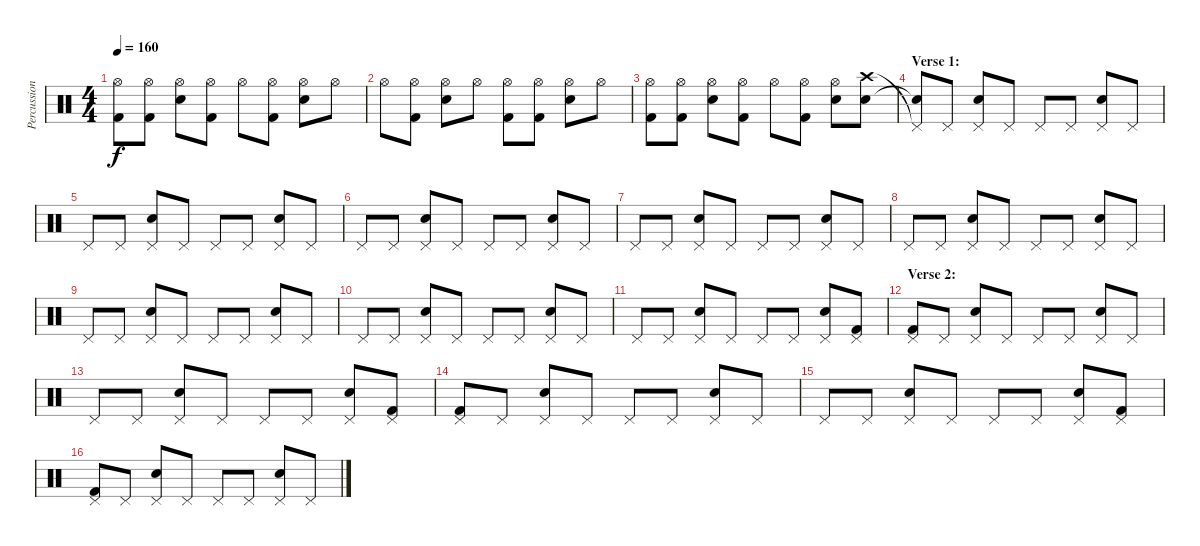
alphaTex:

\track ("Percussion" "Percussion") {instrument percussion}
\staff {score}
\articulation defaults
\ts (4 4)
\tempo 160
\clef neutral
\ks c
("Hi-Hat (open)" "Kick (hit) 2").8{dy f} ("Hi-Hat (open)" "Kick (hit) 2").8 ("Hi-Hat (open)" "Snare (hit) 2").8 ("Hi-Hat (open)" "Kick (hit) 2").8 "Hi-Hat (open)".8 ("Hi-Hat (open)" "Kick (hit) 2").8 ("Hi-Hat (open)" "Snare (hit) 2").8 "Hi-Hat (open)".8 |
"Hi-Hat (open)".8 ("Hi-Hat (open)" "Kick (hit) 2").8 ("Hi-Hat (open)" "Snare (hit) 2").8 "Hi-Hat (open)".8 ("Hi-Hat (open)" "Kick (hit) 2").8 ("Hi-Hat (open)" "Kick (hit) 2").8 ("Hi-Hat (open)" "Snare (hit) 2").8 "Hi-Hat (open)".8 |
("Hi-Hat (open)" "Kick (hit) 2").8 ("Hi-Hat (open)" "Kick (hit) 2").8 ("Hi-Hat (open)" "Snare (hit) 2").8 ("Hi-Hat (open)" "Kick (hit) 2").8 "Hi-Hat (open)".8 ("Hi-Hat (open)" "Kick (hit) 2").8 ("Hi-Hat (open)" "Snare (hit) 2").8 ("Crash high (hit)" "Snare (hit) 2").8 |
\section ("" "Verse 1:")
("Pedal Hi-Hat (hit)"{t} "Snare (hit)"{t}).8 "Pedal Hi-Hat (hit)".8 ("Pedal Hi-Hat (hit)" "Snare (hit) 2").8 "Pedal Hi-Hat (hit)".8 "Pedal Hi-Hat (hit)".8 "Pedal Hi-Hat (hit)".8 ("Pedal Hi-Hat (hit)" "Snare (hit) 2").8 "Pedal Hi-Hat (hit)".8 |
"Pedal Hi-Hat (hit)".8 "Pedal Hi-Hat (hit)".8 ("Pedal Hi-Hat (hit)" "Snare (hit) 2").8 "Pedal Hi-Hat (hit)".8 "Pedal Hi-Hat (hit)".8 "Pedal Hi-Hat (hit)".8 ("Pedal Hi-Hat (hit)" "Snare (hit) 2").8 "Pedal Hi-Hat (hit)".8 |
"Pedal Hi-Hat (hit)".8 "Pedal Hi-Hat (hit)".8 ("Pedal Hi-Hat (hit)" "Snare (hit) 2").8 "Pedal Hi-Hat (hit)".8 "Pedal Hi-Hat (hit)".8 "Pedal Hi-Hat (hit)".8 ("Pedal Hi-Hat (hit)" "Snare (hit) 2").8 "Pedal Hi-Hat (hit)".8 |
"Pedal Hi-Hat (hit)".8 "Pedal Hi-Hat (hit)".8 ("Pedal Hi-Hat (hit)" "Snare (hit) 2").8 "Pedal Hi-Hat (hit)".8 "Pedal Hi-Hat (hit)".8 "Pedal Hi-Hat (hit)".8 ("Pedal Hi-Hat (hit)" "Snare (hit) 2").8 "Pedal Hi-Hat (hit)".8 |
"Pedal Hi-Hat (hit)".8 "Pedal Hi-Hat (hit)".8 ("Pedal Hi-Hat (hit)" "Snare (hit) 2").8 "Pedal Hi-Hat (hit)".8 "Pedal Hi-Hat (hit)".8 "Pedal Hi-Hat (hit)".8 ("Pedal Hi-Hat (hit)" "Snare (hit) 2").8 "Pedal Hi-Hat (hit)".8 |
"Pedal Hi-Hat (hit)".8 "Pedal Hi-Hat (hit)".8 ("Pedal Hi-Hat (hit)" "Snare (hit) 2").8 "Pedal Hi-Hat (hit)".8 "Pedal Hi-Hat (hit)".8 "Pedal Hi-Hat (hit)".8 ("Pedal Hi-Hat (hit)" "Snare (hit) 2").8 "Pedal Hi-Hat (hit)".8 |
"Pedal Hi-Hat (hit)".8 "Pedal Hi-Hat (hit)".8 ("Pedal Hi-Hat (hit)" "Snare (hit) 2").8 "Pedal Hi-Hat (hit)".8 "Pedal Hi-Hat (hit)".8 "Pedal Hi-Hat (hit)".8 ("Pedal Hi-Hat (hit)" "Snare (hit) 2").8 "Pedal Hi-Hat (hit)".8 |
"Pedal Hi-Hat (hit)".8 "Pedal Hi-Hat (hit)".8 ("Pedal Hi-Hat (hit)" "Snare (hit) 2").8 "Pedal Hi-Hat (hit)".8 "Pedal Hi-Hat (hit)".8 "Pedal Hi-Hat (hit)".8 ("Pedal Hi-Hat (hit)" "Snare (hit) 2").8 ("Pedal Hi-Hat (hit)" "Kick (hit) 2").8 |
\section ("" "Verse 2:")
("Pedal Hi-Hat (hit)" "Kick (hit) 2").8 "Pedal Hi-Hat (hit)".8 ("Pedal Hi-Hat (hit)" "Snare (hit) 2").8 "Pedal Hi-Hat (hit)".8 "Pedal Hi-Hat (hit)".8 "Pedal Hi-Hat (hit)".8 ("Pedal Hi-Hat (hit)" "Snare (hit) 2").8 "Pedal Hi-Hat (hit)".8 |
"Pedal Hi-Hat (hit)".8 "Pedal Hi-Hat (hit)".8 ("Pedal Hi-Hat (hit)" "Snare (hit) 2").8 "Pedal Hi-Hat (hit)".8 "Pedal Hi-Hat (hit)".8 "Pedal Hi-Hat (hit)".8 ("Pedal Hi-Hat (hit)" "Snare (hit) 2").8 ("Pedal Hi-Hat (hit)" "Kick (hit) 2").8 |
("Pedal Hi-Hat (hit)" "Kick (hit) 2").8 "Pedal Hi-Hat (hit)".8 ("Pedal Hi-Hat (hit)" "Snare (hit) 2").8 "Pedal Hi-Hat (hit)".8 "Pedal Hi-Hat (hit)".8 "Pedal Hi-Hat (hit)".8 ("Pedal Hi-Hat (hit)" "Snare (hit) 2").8 "Pedal Hi-Hat (hit)".8 |
"Pedal Hi-Hat (hit)".8 "Pedal Hi-Hat (hit)".8 ("Pedal Hi-Hat (hit)" "Snare (hit) 2").8 "Pedal Hi-Hat (hit)".8 "Pedal Hi-Hat (hit)".8 "Pedal Hi-Hat (hit)".8 ("Pedal Hi-Hat (hit)" "Snare (hit) 2").8 ("Pedal Hi-Hat (hit)" "Kick (hit) 2").8 |
("Pedal Hi-Hat (hit)" "Kick (hit) 2").8 "Pedal Hi-Hat (hit)".8 ("Pedal Hi-Hat (hit)" "Snare (hit) 2").8 "Pedal Hi-Hat (hit)".8 "Pedal Hi-Hat (hit)".8 "Pedal Hi-Hat (hit)".8 ("Pedal Hi-Hat (hit)" "Snare (hit) 2").8 "Pedal Hi-Hat (hit)".8
